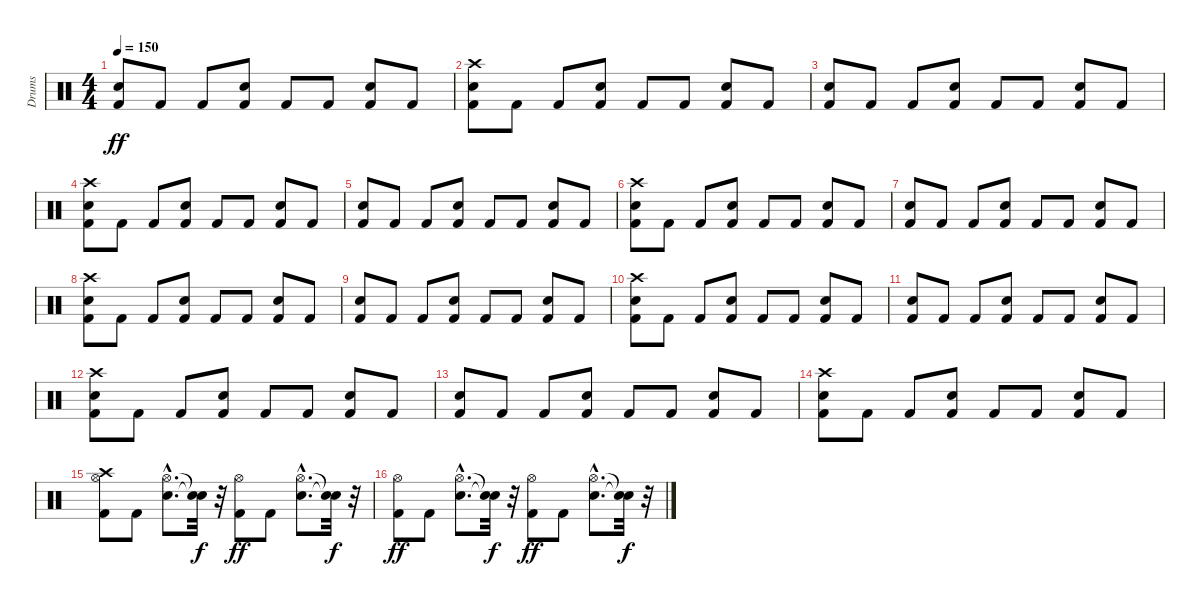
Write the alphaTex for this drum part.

\track ("Drums" "Drums") {instrument percussion}
\staff {score}
\articulation defaults
\ts (4 4)
\tempo 150
\clef neutral
\ks c
("Kick (hit) 2" "Snare (hit) 2").8{dy ff} "Kick (hit) 2".8 "Kick (hit) 2".8 ("Kick (hit) 2" "Snare (hit) 2").8 "Kick (hit) 2".8 "Kick (hit) 2".8 ("Kick (hit) 2" "Snare (hit) 2").8 "Kick (hit) 2".8 |
("Kick (hit) 2" "Snare (hit) 2" "Crash high (hit)").8 "Kick (hit) 2".8 "Kick (hit) 2".8 ("Kick (hit) 2" "Snare (hit) 2").8 "Kick (hit) 2".8 "Kick (hit) 2".8 ("Kick (hit) 2" "Snare (hit) 2").8 "Kick (hit) 2".8 |
("Kick (hit) 2" "Snare (hit) 2").8 "Kick (hit) 2".8 "Kick (hit) 2".8 ("Kick (hit) 2" "Snare (hit) 2").8 "Kick (hit) 2".8 "Kick (hit) 2".8 ("Kick (hit) 2" "Snare (hit) 2").8 "Kick (hit) 2".8 |
("Kick (hit) 2" "Snare (hit) 2" "Crash high (hit)").8 "Kick (hit) 2".8 "Kick (hit) 2".8 ("Kick (hit) 2" "Snare (hit) 2").8 "Kick (hit) 2".8 "Kick (hit) 2".8 ("Kick (hit) 2" "Snare (hit) 2").8 "Kick (hit) 2".8 |
("Kick (hit) 2" "Snare (hit) 2").8 "Kick (hit) 2".8 "Kick (hit) 2".8 ("Kick (hit) 2" "Snare (hit) 2").8 "Kick (hit) 2".8 "Kick (hit) 2".8 ("Kick (hit) 2" "Snare (hit) 2").8 "Kick (hit) 2".8 |
("Kick (hit) 2" "Snare (hit) 2" "Crash high (hit)").8 "Kick (hit) 2".8 "Kick (hit) 2".8 ("Kick (hit) 2" "Snare (hit) 2").8 "Kick (hit) 2".8 "Kick (hit) 2".8 ("Kick (hit) 2" "Snare (hit) 2").8 "Kick (hit) 2".8 |
("Kick (hit) 2" "Snare (hit) 2").8 "Kick (hit) 2".8 "Kick (hit) 2".8 ("Kick (hit) 2" "Snare (hit) 2").8 "Kick (hit) 2".8 "Kick (hit) 2".8 ("Kick (hit) 2" "Snare (hit) 2").8 "Kick (hit) 2".8 |
("Kick (hit) 2" "Snare (hit) 2" "Crash high (hit)").8 "Kick (hit) 2".8 "Kick (hit) 2".8 ("Kick (hit) 2" "Snare (hit) 2").8 "Kick (hit) 2".8 "Kick (hit) 2".8 ("Kick (hit) 2" "Snare (hit) 2").8 "Kick (hit) 2".8 |
("Kick (hit) 2" "Snare (hit) 2").8 "Kick (hit) 2".8 "Kick (hit) 2".8 ("Kick (hit) 2" "Snare (hit) 2").8 "Kick (hit) 2".8 "Kick (hit) 2".8 ("Kick (hit) 2" "Snare (hit) 2").8 "Kick (hit) 2".8 |
("Kick (hit) 2" "Snare (hit) 2" "Crash high (hit)").8 "Kick (hit) 2".8 "Kick (hit) 2".8 ("Kick (hit) 2" "Snare (hit) 2").8 "Kick (hit) 2".8 "Kick (hit) 2".8 ("Kick (hit) 2" "Snare (hit) 2").8 "Kick (hit) 2".8 |
("Kick (hit) 2" "Snare (hit) 2").8 "Kick (hit) 2".8 "Kick (hit) 2".8 ("Kick (hit) 2" "Snare (hit) 2").8 "Kick (hit) 2".8 "Kick (hit) 2".8 ("Kick (hit) 2" "Snare (hit) 2").8 "Kick (hit) 2".8 |
("Kick (hit) 2" "Snare (hit) 2" "Crash high (hit)").8 "Kick (hit) 2".8 "Kick (hit) 2".8 ("Kick (hit) 2" "Snare (hit) 2").8 "Kick (hit) 2".8 "Kick (hit) 2".8 ("Kick (hit) 2" "Snare (hit) 2").8 "Kick (hit) 2".8 |
("Kick (hit) 2" "Snare (hit) 2").8 "Kick (hit) 2".8 "Kick (hit) 2".8 ("Kick (hit) 2" "Snare (hit) 2").8 "Kick (hit) 2".8 "Kick (hit) 2".8 ("Kick (hit) 2" "Snare (hit) 2").8 "Kick (hit) 2".8 |
("Kick (hit) 2" "Snare (hit) 2" "Crash high (hit)").8 "Kick (hit) 2".8 "Kick (hit) 2".8 ("Kick (hit) 2" "Snare (hit) 2").8 "Kick (hit) 2".8 "Kick (hit) 2".8 ("Kick (hit) 2" "Snare (hit) 2").8 "Kick (hit) 2".8 |
("Kick (hit) 2" "Hi-Hat (open)" "Crash high (hit)").8 "Kick (hit) 2".8 ("Snare (hit) 2"{hac} "Hi-Hat (open)"{hac}).8{d} ("Snare (hit)"{t} "Snare (hit)"{t}).32{dy f} r.32 ("Kick (hit) 2" "Hi-Hat (open)").8{dy ff} "Kick (hit) 2".8 ("Snare (hit) 2"{hac} "Hi-Hat (open)"{hac}).8{d} ("Snare (hit)"{t} "Snare (hit)"{t}).32{dy f} r.32 |
("Kick (hit) 2" "Hi-Hat (open)").8{dy ff} "Kick (hit) 2".8 ("Snare (hit) 2"{hac} "Hi-Hat (open)"{hac}).8{d} ("Snare (hit)"{t} "Snare (hit)"{t}).32{dy f} r.32 ("Kick (hit) 2" "Hi-Hat (open)").8{dy ff} "Kick (hit) 2".8 ("Snare (hit) 2"{hac} "Hi-Hat (open)"{hac}).8{d} ("Snare (hit)"{t} "Snare (hit)"{t}).32{dy f} r.32
